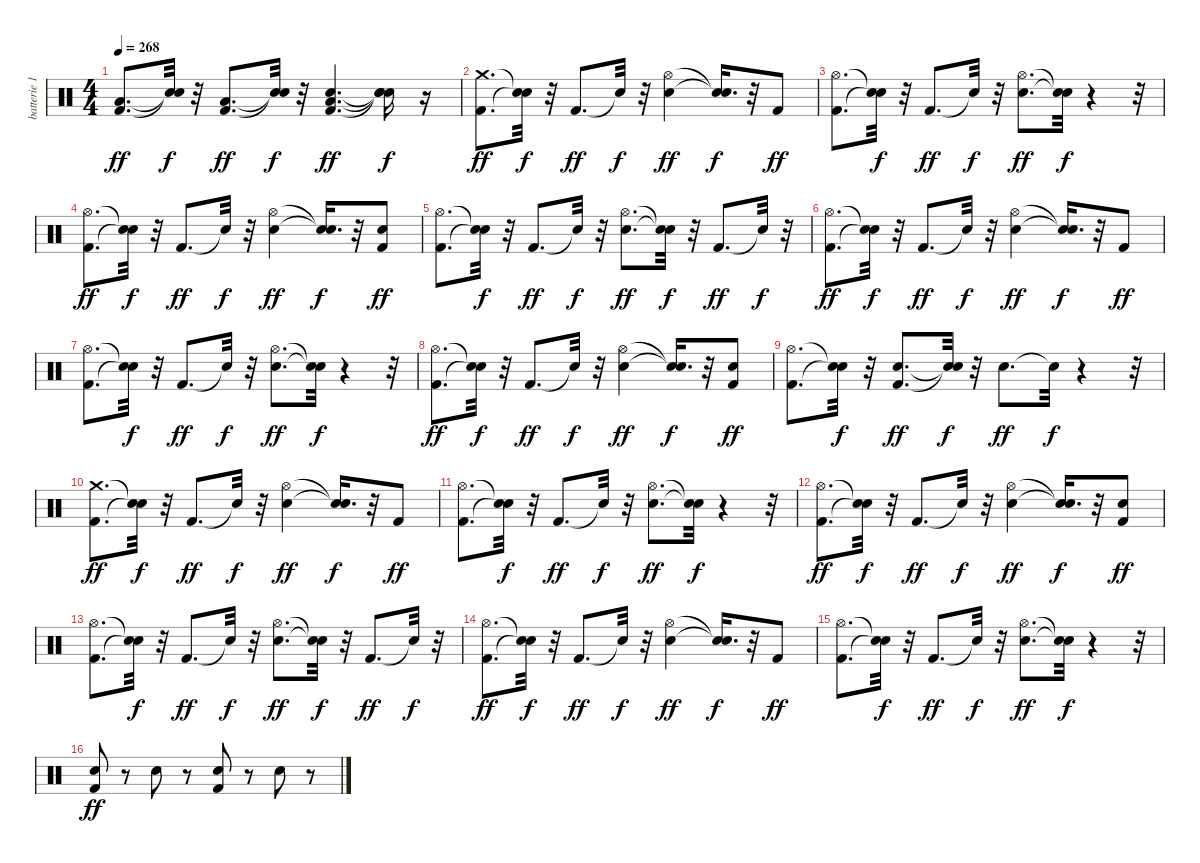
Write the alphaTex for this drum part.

\track ("batterie 1" "batterie 1") {instrument percussion}
\staff {score}
\articulation defaults
\ts (4 4)
\tempo 268
\clef neutral
\ks c
("Kick (hit) 2" "Low Floor Tom (hit)").8{d dy ff} ("Snare (hit)"{t} "Snare (hit)"{t}).32{dy f} r.32 ("Kick (hit) 2" "Low Floor Tom (hit)").8{d dy ff} ("Snare (hit)"{t} "Snare (hit)"{t}).32{dy f} r.32 ("Kick (hit) 2" "Electric Snare (hit)" "Low Floor Tom (hit)").4{d dy ff} ("Snare (hit)"{t} "Snare (hit)"{t} "Snare (hit)"{t}).16{dy f} r.16 |
("Kick (hit) 2" "Crash medium (hit)").8{d dy ff} ("Snare (hit)"{t} "Snare (hit)"{t}).32{dy f} r.32 "Kick (hit) 2".8{d dy ff} "Snare (hit)"{t}.32{dy f} r.32 ("Electric Snare (hit)" "Hi-Hat (open)").4{dy ff} ("Snare (hit)"{t} "Snare (hit)"{t}).16{d dy f} r.32 "Kick (hit) 2".8{dy ff} |
("Kick (hit) 2" "Hi-Hat (open)").8{d} ("Snare (hit)"{t} "Snare (hit)"{t}).32{dy f} r.32 "Kick (hit) 2".8{d dy ff} "Snare (hit)"{t}.32{dy f} r.32 ("Electric Snare (hit)" "Hi-Hat (open)").8{d dy ff} ("Snare (hit)"{t} "Snare (hit)"{t}).32{dy f} r.4 r.32 |
("Kick (hit) 2" "Hi-Hat (open)").8{d dy ff} ("Snare (hit)"{t} "Snare (hit)"{t}).32{dy f} r.32 "Kick (hit) 2".8{d dy ff} "Snare (hit)"{t}.32{dy f} r.32 ("Electric Snare (hit)" "Hi-Hat (open)").4{dy ff} ("Snare (hit)"{t} "Snare (hit)"{t}).16{d dy f} r.32 ("Kick (hit) 2" "Electric Snare (hit)").8{dy ff} |
("Kick (hit) 2" "Hi-Hat (open)").8{d} ("Snare (hit)"{t} "Snare (hit)"{t}).32{dy f} r.32 "Kick (hit) 2".8{d dy ff} "Snare (hit)"{t}.32{dy f} r.32 ("Electric Snare (hit)" "Hi-Hat (open)").8{d dy ff} ("Snare (hit)"{t} "Snare (hit)"{t}).32{dy f} r.32 "Kick (hit) 2".8{d dy ff} "Snare (hit)"{t}.32{dy f} r.32 |
("Kick (hit) 2" "Hi-Hat (open)").8{d dy ff} ("Snare (hit)"{t} "Snare (hit)"{t}).32{dy f} r.32 "Kick (hit) 2".8{d dy ff} "Snare (hit)"{t}.32{dy f} r.32 ("Electric Snare (hit)" "Hi-Hat (open)").4{dy ff} ("Snare (hit)"{t} "Snare (hit)"{t}).16{d dy f} r.32 "Kick (hit) 2".8{dy ff} |
("Kick (hit) 2" "Hi-Hat (open)").8{d} ("Snare (hit)"{t} "Snare (hit)"{t}).32{dy f} r.32 "Kick (hit) 2".8{d dy ff} "Snare (hit)"{t}.32{dy f} r.32 ("Electric Snare (hit)" "Hi-Hat (open)").8{d dy ff} ("Snare (hit)"{t} "Snare (hit)"{t}).32{dy f} r.4 r.32 |
("Kick (hit) 2" "Hi-Hat (open)").8{d dy ff} ("Snare (hit)"{t} "Snare (hit)"{t}).32{dy f} r.32 "Kick (hit) 2".8{d dy ff} "Snare (hit)"{t}.32{dy f} r.32 ("Electric Snare (hit)" "Hi-Hat (open)").4{dy ff} ("Snare (hit)"{t} "Snare (hit)"{t}).16{d dy f} r.32 ("Kick (hit) 2" "Electric Snare (hit)").8{dy ff} |
("Kick (hit) 2" "Hi-Hat (open)").8{d} ("Snare (hit)"{t} "Snare (hit)"{t}).32{dy f} r.32 ("Kick (hit) 2" "Electric Snare (hit)").8{d dy ff} ("Snare (hit)"{t} "Snare (hit)"{t}).32{dy f} r.32 "Electric Snare (hit)".8{d dy ff} "Snare (hit)"{t}.32{dy f} r.4 r.32 |
("Kick (hit) 2" "Crash medium (hit)").8{d dy ff} ("Snare (hit)"{t} "Snare (hit)"{t}).32{dy f} r.32 "Kick (hit) 2".8{d dy ff} "Snare (hit)"{t}.32{dy f} r.32 ("Electric Snare (hit)" "Hi-Hat (open)").4{dy ff} ("Snare (hit)"{t} "Snare (hit)"{t}).16{d dy f} r.32 "Kick (hit) 2".8{dy ff} |
("Kick (hit) 2" "Hi-Hat (open)").8{d} ("Snare (hit)"{t} "Snare (hit)"{t}).32{dy f} r.32 "Kick (hit) 2".8{d dy ff} "Snare (hit)"{t}.32{dy f} r.32 ("Electric Snare (hit)" "Hi-Hat (open)").8{d dy ff} ("Snare (hit)"{t} "Snare (hit)"{t}).32{dy f} r.4 r.32 |
("Kick (hit) 2" "Hi-Hat (open)").8{d dy ff} ("Snare (hit)"{t} "Snare (hit)"{t}).32{dy f} r.32 "Kick (hit) 2".8{d dy ff} "Snare (hit)"{t}.32{dy f} r.32 ("Electric Snare (hit)" "Hi-Hat (open)").4{dy ff} ("Snare (hit)"{t} "Snare (hit)"{t}).16{d dy f} r.32 ("Kick (hit) 2" "Electric Snare (hit)").8{dy ff} |
("Kick (hit) 2" "Hi-Hat (open)").8{d} ("Snare (hit)"{t} "Snare (hit)"{t}).32{dy f} r.32 "Kick (hit) 2".8{d dy ff} "Snare (hit)"{t}.32{dy f} r.32 ("Electric Snare (hit)" "Hi-Hat (open)").8{d dy ff} ("Snare (hit)"{t} "Snare (hit)"{t}).32{dy f} r.32 "Kick (hit) 2".8{d dy ff} "Snare (hit)"{t}.32{dy f} r.32 |
("Kick (hit) 2" "Hi-Hat (open)").8{d dy ff} ("Snare (hit)"{t} "Snare (hit)"{t}).32{dy f} r.32 "Kick (hit) 2".8{d dy ff} "Snare (hit)"{t}.32{dy f} r.32 ("Electric Snare (hit)" "Hi-Hat (open)").4{dy ff} ("Snare (hit)"{t} "Snare (hit)"{t}).16{d dy f} r.32 "Kick (hit) 2".8{dy ff} |
("Kick (hit) 2" "Hi-Hat (open)").8{d} ("Snare (hit)"{t} "Snare (hit)"{t}).32{dy f} r.32 "Kick (hit) 2".8{d dy ff} "Snare (hit)"{t}.32{dy f} r.32 ("Electric Snare (hit)" "Hi-Hat (open)").8{d dy ff} ("Snare (hit)"{t} "Snare (hit)"{t}).32{dy f} r.4 r.32 |
("Kick (hit) 2" "Electric Snare (hit)").8{dy ff volume 5} r.8 "Electric Snare (hit)".8{volume 7} r.8 ("Kick (hit) 2" "Electric Snare (hit)").8{volume 9} r.8 "Electric Snare (hit)".8{volume 10} r.8
